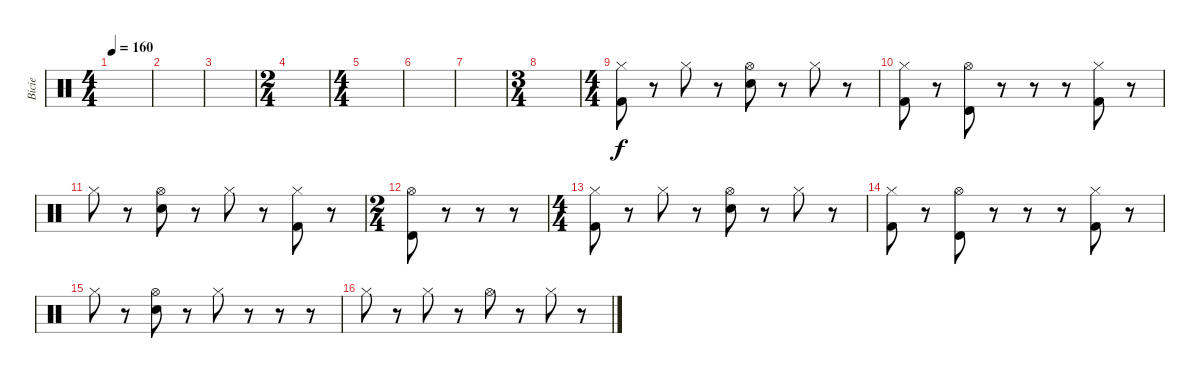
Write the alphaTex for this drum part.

\track ("Bicie" "Bicie") {instrument percussion}
\staff {score}
\articulation defaults
\ts (4 4)
\tempo 160
\clef neutral
\ks c
|
|
|
\ts (2 4)
|
\ts (4 4)
|
|
|
\ts (3 4)
|
\ts (4 4)
("Kick (hit) 2" "Hi-Hat (closed)").8 r.8 "Hi-Hat (closed)".8 r.8 ("Snare (hit) 2" "Hi-Hat (open)").8 r.8 "Hi-Hat (closed)".8 r.8 |
("Kick (hit) 2" "Hi-Hat (closed)").8 r.8 ("Timbale high (hit)" "Hi-Hat (open)").8 r.8 r.8 r.8 ("Kick (hit) 2" "Hi-Hat (closed)").8 r.8 |
"Hi-Hat (closed)".8 r.8 ("Snare (hit) 2" "Hi-Hat (open)").8 r.8 "Hi-Hat (closed)".8 r.8 ("Kick (hit) 2" "Hi-Hat (closed)").8 r.8 |
\ts (2 4)
("Timbale high (hit)" "Hi-Hat (open)").8 r.8 r.8 r.8 |
\ts (4 4)
("Kick (hit) 2" "Hi-Hat (closed)").8 r.8 "Hi-Hat (closed)".8 r.8 ("Snare (hit) 2" "Hi-Hat (open)").8 r.8 "Hi-Hat (closed)".8 r.8 |
("Kick (hit) 2" "Hi-Hat (closed)").8 r.8 ("Timbale high (hit)" "Hi-Hat (open)").8 r.8 r.8 r.8 ("Kick (hit) 2" "Hi-Hat (closed)").8 r.8 |
"Hi-Hat (closed)".8 r.8 ("Snare (hit) 2" "Hi-Hat (open)").8 r.8 "Hi-Hat (closed)".8 r.8 r.8 r.8 |
"Hi-Hat (closed)".8 r.8 "Hi-Hat (closed)".8 r.8 "Hi-Hat (open)".8 r.8 "Hi-Hat (closed)".8 r.8
